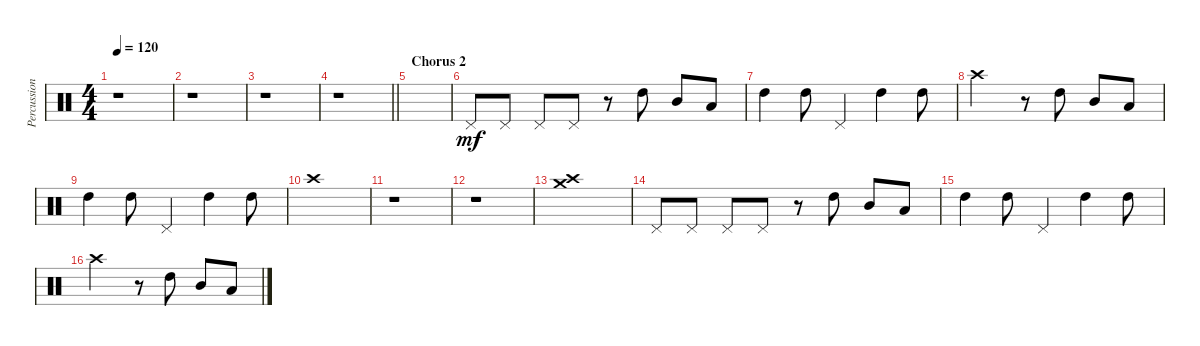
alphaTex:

\track ("Percussion" "Percussion") {instrument percussion}
\staff {score}
\articulation defaults
\ts (4 4)
\tempo 120
\clef neutral
\ks c
r.1{dy p} |
r.1 |
r.1 |
\barLineRight lightlight
r.1 |
\section ("" "Chorus 2")
|
"Pedal Hi-Hat (hit)".8{dy mf} "Pedal Hi-Hat (hit)".8 "Pedal Hi-Hat (hit)".8 "Pedal Hi-Hat (hit)".8 r.8 "High Tom (hit)".8 "Mid Tom (hit)".8 "Low Tom (hit)".8 |
"High Tom (hit)".4 "High Tom (hit)".8 "Pedal Hi-Hat (hit)".4 "High Tom (hit)".4 "High Tom (hit)".8 |
"Crash high (hit)".2 r.8 "High Tom (hit)".8 "Mid Tom (hit)".8 "Low Tom (hit)".8 |
"High Tom (hit)".4 "High Tom (hit)".8 "Pedal Hi-Hat (hit)".4 "High Tom (hit)".4 "High Tom (hit)".8 |
"Crash high (hit)".1 |
r.1 |
r.1 |
("Crash medium (hit)" "Crash high (hit)").1 |
"Pedal Hi-Hat (hit)".8 "Pedal Hi-Hat (hit)".8 "Pedal Hi-Hat (hit)".8 "Pedal Hi-Hat (hit)".8 r.8 "High Tom (hit)".8 "Mid Tom (hit)".8 "Low Tom (hit)".8 |
"High Tom (hit)".4 "High Tom (hit)".8 "Pedal Hi-Hat (hit)".4 "High Tom (hit)".4 "High Tom (hit)".8 |
"Crash high (hit)".2 r.8 "High Tom (hit)".8 "Mid Tom (hit)".8 "Low Tom (hit)".8
